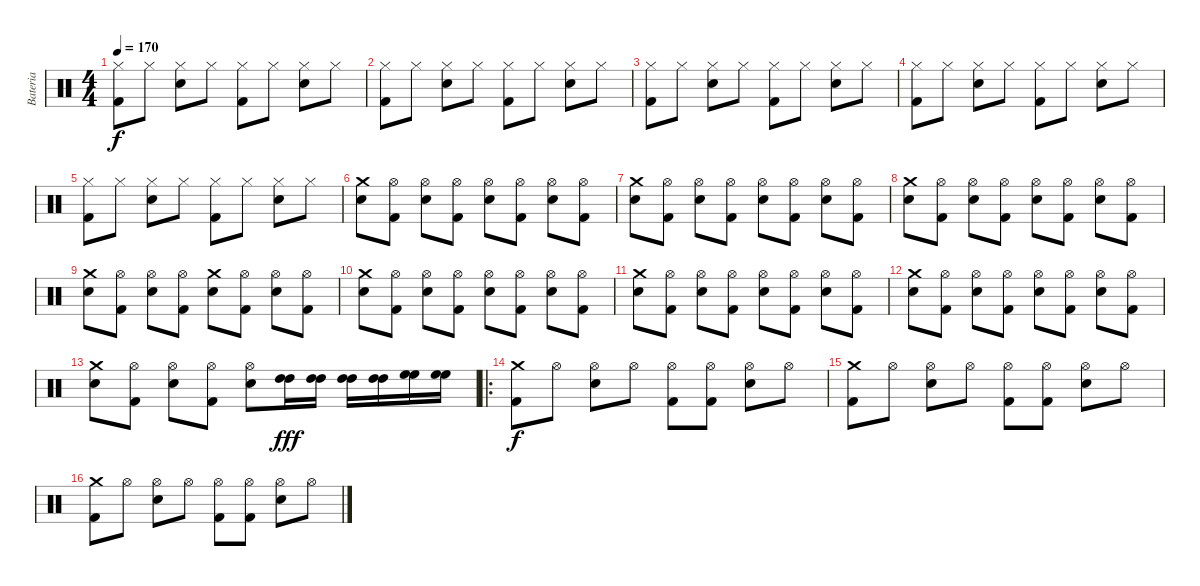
\track ("Bateria" "Bateria") {instrument percussion}
\staff {score}
\articulation defaults
\ts (4 4)
\tempo 170
\clef neutral
\ks c
("Hi-Hat (closed)" "Kick (hit) 2").8{dy f} "Hi-Hat (closed)".8 ("Hi-Hat (closed)" "Snare (hit) 2").8 "Hi-Hat (closed)".8 ("Hi-Hat (closed)" "Kick (hit) 2").8 "Hi-Hat (closed)".8 ("Hi-Hat (closed)" "Snare (hit) 2").8 "Hi-Hat (closed)".8 |
("Hi-Hat (closed)" "Kick (hit) 2").8 "Hi-Hat (closed)".8 ("Hi-Hat (closed)" "Snare (hit) 2").8 "Hi-Hat (closed)".8 ("Hi-Hat (closed)" "Kick (hit) 2").8 "Hi-Hat (closed)".8 ("Hi-Hat (closed)" "Snare (hit) 2").8 "Hi-Hat (closed)".8 |
("Hi-Hat (closed)" "Kick (hit) 2").8 "Hi-Hat (closed)".8 ("Hi-Hat (closed)" "Snare (hit) 2").8 "Hi-Hat (closed)".8 ("Hi-Hat (closed)" "Kick (hit) 2").8 "Hi-Hat (closed)".8 ("Hi-Hat (closed)" "Snare (hit) 2").8 "Hi-Hat (closed)".8 |
("Hi-Hat (closed)" "Kick (hit) 2").8 "Hi-Hat (closed)".8 ("Hi-Hat (closed)" "Snare (hit) 2").8 "Hi-Hat (closed)".8 ("Hi-Hat (closed)" "Kick (hit) 2").8 "Hi-Hat (closed)".8 ("Hi-Hat (closed)" "Snare (hit) 2").8 "Hi-Hat (closed)".8 |
("Hi-Hat (closed)" "Kick (hit) 2").8 "Hi-Hat (closed)".8 ("Hi-Hat (closed)" "Snare (hit) 2").8 "Hi-Hat (closed)".8 ("Hi-Hat (closed)" "Kick (hit) 2").8 "Hi-Hat (closed)".8 ("Hi-Hat (closed)" "Snare (hit) 2").8 "Hi-Hat (closed)".8 |
("Crash medium (hit)" "Snare (hit) 2").8 ("Hi-Hat (open)" "Kick (hit) 2").8 ("Hi-Hat (open)" "Snare (hit) 2").8 ("Hi-Hat (open)" "Kick (hit) 2").8 ("Hi-Hat (open)" "Snare (hit) 2").8 ("Hi-Hat (open)" "Kick (hit) 2").8 ("Hi-Hat (open)" "Snare (hit) 2").8 ("Hi-Hat (open)" "Kick (hit) 2").8 |
("Crash medium (hit)" "Snare (hit) 2").8 ("Hi-Hat (open)" "Kick (hit) 2").8 ("Hi-Hat (open)" "Snare (hit) 2").8 ("Hi-Hat (open)" "Kick (hit) 2").8 ("Hi-Hat (open)" "Snare (hit) 2").8 ("Hi-Hat (open)" "Kick (hit) 2").8 ("Hi-Hat (open)" "Snare (hit) 2").8 ("Hi-Hat (open)" "Kick (hit) 2").8 |
("Crash medium (hit)" "Snare (hit) 2").8 ("Hi-Hat (open)" "Kick (hit) 2").8 ("Hi-Hat (open)" "Snare (hit) 2").8 ("Hi-Hat (open)" "Kick (hit) 2").8 ("Hi-Hat (open)" "Snare (hit) 2").8 ("Hi-Hat (open)" "Kick (hit) 2").8 ("Hi-Hat (open)" "Snare (hit) 2").8 ("Hi-Hat (open)" "Kick (hit) 2").8 |
("Crash medium (hit)" "Snare (hit) 2").8 ("Hi-Hat (open)" "Kick (hit) 2").8 ("Hi-Hat (open)" "Snare (hit) 2").8 ("Hi-Hat (open)" "Kick (hit) 2").8 ("Crash medium (hit)" "Snare (hit) 2").8 ("Hi-Hat (open)" "Kick (hit) 2").8 ("Hi-Hat (open)" "Snare (hit) 2").8 ("Hi-Hat (open)" "Kick (hit) 2").8 |
("Crash medium (hit)" "Snare (hit) 2").8 ("Hi-Hat (open)" "Kick (hit) 2").8 ("Hi-Hat (open)" "Snare (hit) 2").8 ("Hi-Hat (open)" "Kick (hit) 2").8 ("Hi-Hat (open)" "Snare (hit) 2").8 ("Hi-Hat (open)" "Kick (hit) 2").8 ("Hi-Hat (open)" "Snare (hit) 2").8 ("Hi-Hat (open)" "Kick (hit) 2").8 |
("Crash medium (hit)" "Snare (hit) 2").8 ("Hi-Hat (open)" "Kick (hit) 2").8 ("Hi-Hat (open)" "Snare (hit) 2").8 ("Hi-Hat (open)" "Kick (hit) 2").8 ("Hi-Hat (open)" "Snare (hit) 2").8 ("Hi-Hat (open)" "Kick (hit) 2").8 ("Hi-Hat (open)" "Snare (hit) 2").8 ("Hi-Hat (open)" "Kick (hit) 2").8 |
("Crash medium (hit)" "Snare (hit) 2").8 ("Hi-Hat (open)" "Kick (hit) 2").8 ("Hi-Hat (open)" "Snare (hit) 2").8 ("Hi-Hat (open)" "Kick (hit) 2").8 ("Hi-Hat (open)" "Snare (hit) 2").8 ("Hi-Hat (open)" "Kick (hit) 2").8 ("Hi-Hat (open)" "Snare (hit) 2").8 ("Hi-Hat (open)" "Kick (hit) 2").8 |
("Crash medium (hit)" "Snare (hit) 2").8 ("Hi-Hat (open)" "Kick (hit) 2").8 ("Hi-Hat (open)" "Snare (hit) 2").8 ("Hi-Hat (open)" "Kick (hit) 2").8 ("Hi-Hat (open)" "Snare (hit) 2").8 ("High Tom (hit)" "High Tom (hit)").16{dy fff} ("High Tom (hit)" "High Tom (hit)").16 ("High Tom (hit)" "High Tom (hit)").16 ("High Tom (hit)" "High Tom (hit)").16 ("High Floor Tom (hit)" "High Floor Tom (hit)").16 ("High Floor Tom (hit)" "High Floor Tom (hit)").16 |
\ro
("Crash medium (hit)" "Kick (hit) 2").8{dy f} "Hi-Hat (open)".8 ("Hi-Hat (open)" "Snare (hit) 2").8 "Hi-Hat (open)".8 ("Hi-Hat (open)" "Kick (hit) 2").8 ("Hi-Hat (open)" "Kick (hit) 2").8 ("Hi-Hat (open)" "Snare (hit) 2").8 "Hi-Hat (open)".8 |
("Crash medium (hit)" "Kick (hit) 2").8 "Hi-Hat (open)".8 ("Hi-Hat (open)" "Snare (hit) 2").8 "Hi-Hat (open)".8 ("Hi-Hat (open)" "Kick (hit) 2").8 ("Hi-Hat (open)" "Kick (hit) 2").8 ("Hi-Hat (open)" "Snare (hit) 2").8 "Hi-Hat (open)".8 |
("Crash medium (hit)" "Kick (hit) 2").8 "Hi-Hat (open)".8 ("Hi-Hat (open)" "Snare (hit) 2").8 "Hi-Hat (open)".8 ("Hi-Hat (open)" "Kick (hit) 2").8 ("Hi-Hat (open)" "Kick (hit) 2").8 ("Hi-Hat (open)" "Snare (hit) 2").8 "Hi-Hat (open)".8
